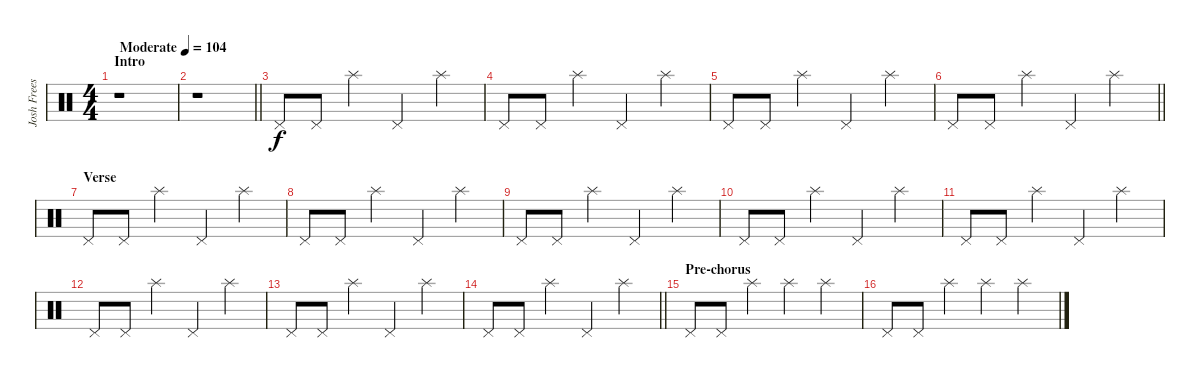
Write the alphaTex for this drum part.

\track ("Josh Freese (Studio Drummer)" "Josh Frees") {instrument percussion}
\staff {score}
\articulation defaults
\ts (4 4)
\section ("" "Intro")
\tempo (104 "Moderate")
\clef neutral
\ks c
r.1{dy f} |
\barLineRight lightlight
r.1 |
"Pedal Hi-Hat (hit)".8 "Pedal Hi-Hat (hit)".8 "Splash (hit)".4 "Pedal Hi-Hat (hit)".4 "Splash (hit)".4 |
"Pedal Hi-Hat (hit)".8 "Pedal Hi-Hat (hit)".8 "Splash (hit)".4 "Pedal Hi-Hat (hit)".4 "Splash (hit)".4 |
"Pedal Hi-Hat (hit)".8 "Pedal Hi-Hat (hit)".8 "Splash (hit)".4 "Pedal Hi-Hat (hit)".4 "Splash (hit)".4 |
\barLineRight lightlight "Pedal Hi-Hat (hit)".8 "Pedal Hi-Hat (hit)".8 "Splash (hit)".4 "Pedal Hi-Hat (hit)".4 "Splash (hit)".4
|
\section ("" "Verse")
"Pedal Hi-Hat (hit)".8 "Pedal Hi-Hat (hit)".8 "Splash (hit)".4 "Pedal Hi-Hat (hit)".4 "Splash (hit)".4 |
"Pedal Hi-Hat (hit)".8 "Pedal Hi-Hat (hit)".8 "Splash (hit)".4 "Pedal Hi-Hat (hit)".4 "Splash (hit)".4 |
"Pedal Hi-Hat (hit)".8 "Pedal Hi-Hat (hit)".8 "Splash (hit)".4 "Pedal Hi-Hat (hit)".4 "Splash (hit)".4 |
"Pedal Hi-Hat (hit)".8 "Pedal Hi-Hat (hit)".8 "Splash (hit)".4 "Pedal Hi-Hat (hit)".4 "Splash (hit)".4 |
"Pedal Hi-Hat (hit)".8 "Pedal Hi-Hat (hit)".8 "Splash (hit)".4 "Pedal Hi-Hat (hit)".4 "Splash (hit)".4 |
"Pedal Hi-Hat (hit)".8 "Pedal Hi-Hat (hit)".8 "Splash (hit)".4 "Pedal Hi-Hat (hit)".4 "Splash (hit)".4 |
"Pedal Hi-Hat (hit)".8 "Pedal Hi-Hat (hit)".8 "Splash (hit)".4 "Pedal Hi-Hat (hit)".4 "Splash (hit)".4 |
\barLineRight lightlight "Pedal Hi-Hat (hit)".8 "Pedal Hi-Hat (hit)".8 "Splash (hit)".4 "Pedal Hi-Hat (hit)".4 "Splash (hit)".4
|
\section ("" "Pre-chorus")
"Pedal Hi-Hat (hit)".8 "Pedal Hi-Hat (hit)".8 "Splash (hit)".4 "Splash (hit)".4 "Splash (hit)".4 |
"Pedal Hi-Hat (hit)".8 "Pedal Hi-Hat (hit)".8 "Splash (hit)".4 "Splash (hit)".4 "Splash (hit)".4
